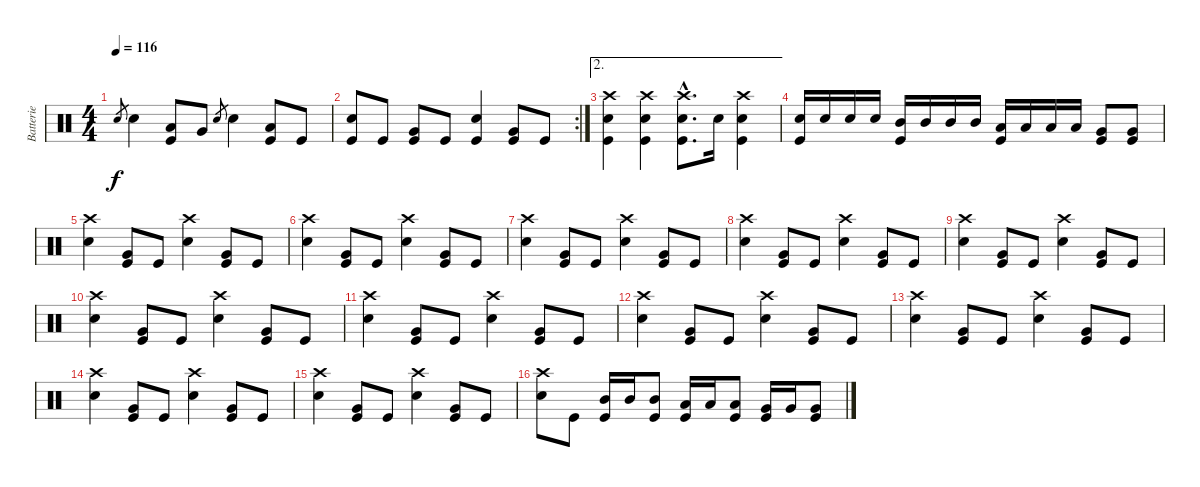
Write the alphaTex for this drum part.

\track ("Batterie" "Batterie") {instrument percussion}
\staff {score}
\articulation defaults
\ts (4 4)
\tempo 116
\clef neutral
\ks c "Snare (hit) 2".8{gr dy f} "Snare (hit) 2".4
("Low Tom (hit)" "Kick (hit)").8 "Very Low Tom (hit)".8 "Snare (hit) 2".8{gr} "Snare (hit) 2".4 ("Low Tom (hit)" "Kick (hit)").8 "Kick (hit)".8 |
\rc 2
("Snare (hit) 2" "Kick (hit)").8 "Kick (hit)".8 ("Very Low Tom (hit)" "Kick (hit)").8 "Kick (hit)".8 ("Snare (hit) 2" "Kick (hit)").4 ("Very Low Tom (hit)" "Kick (hit)").8 "Kick (hit)".8 |
\ae 2
("Crash high (hit)" "Snare (hit) 2" "Kick (hit)").4 ("Crash high (hit)" "Snare (hit) 2" "Kick (hit)").4 ("Crash high (hit)"{hac} "Snare (hit) 2"{hac} "Kick (hit)"{hac}).8{d} "Snare (hit) 2".16 ("Crash high (hit)" "Snare (hit) 2" "Kick (hit)").4 |
("Snare (hit) 2" "Kick (hit)").16 "Snare (hit) 2".16 "Snare (hit) 2".16 "Snare (hit) 2".16 ("Mid Tom (hit)" "Kick (hit)").16 "Mid Tom (hit)".16 "Mid Tom (hit)".16 "Mid Tom (hit)".16 ("Low Tom (hit)" "Kick (hit)").16 "Low Tom (hit)".16 "Low Tom (hit)".16 "Low Tom (hit)".16 ("Very Low Tom (hit)" "Kick (hit)").8 ("Very Low Tom (hit)" "Kick (hit)").8 |
("Crash high (hit)" "Snare (hit) 2").4 ("Very Low Tom (hit)" "Kick (hit)").8 "Kick (hit)".8 ("Crash high (hit)" "Snare (hit) 2").4 ("Very Low Tom (hit)" "Kick (hit)").8 "Kick (hit)".8 |
("Crash high (hit)" "Snare (hit) 2").4 ("Very Low Tom (hit)" "Kick (hit)").8 "Kick (hit)".8 ("Crash high (hit)" "Snare (hit) 2").4 ("Very Low Tom (hit)" "Kick (hit)").8 "Kick (hit)".8 |
("Crash high (hit)" "Snare (hit) 2").4 ("Very Low Tom (hit)" "Kick (hit)").8 "Kick (hit)".8 ("Crash high (hit)" "Snare (hit) 2").4 ("Very Low Tom (hit)" "Kick (hit)").8 "Kick (hit)".8 |
("Crash high (hit)" "Snare (hit) 2").4 ("Very Low Tom (hit)" "Kick (hit)").8 "Kick (hit)".8 ("Crash high (hit)" "Snare (hit) 2").4 ("Very Low Tom (hit)" "Kick (hit)").8 "Kick (hit)".8 |
("Crash high (hit)" "Snare (hit) 2").4 ("Very Low Tom (hit)" "Kick (hit)").8 "Kick (hit)".8 ("Crash high (hit)" "Snare (hit) 2").4 ("Very Low Tom (hit)" "Kick (hit)").8 "Kick (hit)".8 |
("Crash high (hit)" "Snare (hit) 2").4 ("Very Low Tom (hit)" "Kick (hit)").8 "Kick (hit)".8 ("Crash high (hit)" "Snare (hit) 2").4 ("Very Low Tom (hit)" "Kick (hit)").8 "Kick (hit)".8 |
("Crash high (hit)" "Snare (hit) 2").4 ("Very Low Tom (hit)" "Kick (hit)").8 "Kick (hit)".8 ("Crash high (hit)" "Snare (hit) 2").4 ("Very Low Tom (hit)" "Kick (hit)").8 "Kick (hit)".8 |
("Crash high (hit)" "Snare (hit) 2").4 ("Very Low Tom (hit)" "Kick (hit)").8 "Kick (hit)".8 ("Crash high (hit)" "Snare (hit) 2").4 ("Very Low Tom (hit)" "Kick (hit)").8 "Kick (hit)".8 |
("Crash high (hit)" "Snare (hit) 2").4 ("Very Low Tom (hit)" "Kick (hit)").8 "Kick (hit)".8 ("Crash high (hit)" "Snare (hit) 2").4 ("Very Low Tom (hit)" "Kick (hit)").8 "Kick (hit)".8 |
("Crash high (hit)" "Snare (hit) 2").4 ("Very Low Tom (hit)" "Kick (hit)").8 "Kick (hit)".8 ("Crash high (hit)" "Snare (hit) 2").4 ("Very Low Tom (hit)" "Kick (hit)").8 "Kick (hit)".8 |
("Crash high (hit)" "Snare (hit) 2").4 ("Very Low Tom (hit)" "Kick (hit)").8 "Kick (hit)".8 ("Crash high (hit)" "Snare (hit) 2").4 ("Very Low Tom (hit)" "Kick (hit)").8 "Kick (hit)".8 |
("Crash high (hit)" "Snare (hit) 2").8 "Kick (hit)".8 ("Mid Tom (hit)" "Kick (hit)").16 "Mid Tom (hit)".16 ("Mid Tom (hit)" "Kick (hit)").8 ("Low Tom (hit)" "Kick (hit)").16 "Low Tom (hit)".16 ("Low Tom (hit)" "Kick (hit)").8 ("Very Low Tom (hit)" "Kick (hit)").16 "Very Low Tom (hit)".16 ("Very Low Tom (hit)" "Kick (hit)").8
